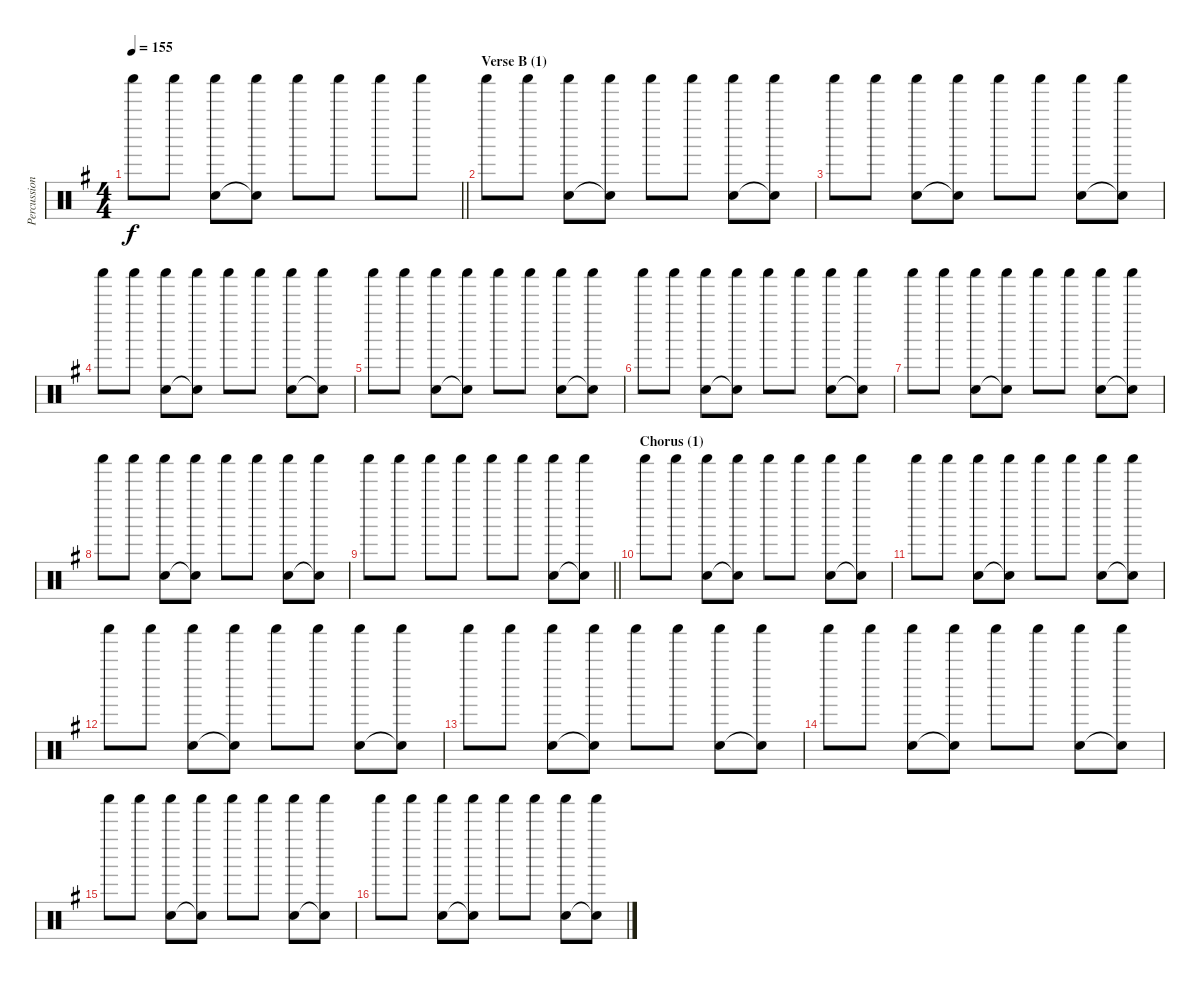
\track ("Percussion" "Percussion") {instrument percussion}
\staff {score}
\articulation defaults
\ts (4 4)
\tempo 155
\clef neutral
\barLineRight lightlight
\ks eminor "Shaker (hit)".8{dy f} "Shaker (hit)".8
("Hand Clap (hit)" "Shaker (hit)").8 ("Snare (hit)"{t} "Shaker (hit)").8 "Shaker (hit)".8 "Shaker (hit)".8 "Shaker (hit)".8 "Shaker (hit)".8 |
\section ("" "Verse B (1)")
"Shaker (hit)".8 "Shaker (hit)".8 ("Hand Clap (hit)" "Shaker (hit)").8 ("Snare (hit)"{t} "Shaker (hit)").8 "Shaker (hit)".8 "Shaker (hit)".8 ("Hand Clap (hit)" "Shaker (hit)").8 ("Snare (hit)"{t} "Shaker (hit)").8 |
"Shaker (hit)".8 "Shaker (hit)".8 ("Hand Clap (hit)" "Shaker (hit)").8 ("Snare (hit)"{t} "Shaker (hit)").8 "Shaker (hit)".8 "Shaker (hit)".8 ("Hand Clap (hit)" "Shaker (hit)").8 ("Snare (hit)"{t} "Shaker (hit)").8 |
"Shaker (hit)".8 "Shaker (hit)".8 ("Hand Clap (hit)" "Shaker (hit)").8 ("Snare (hit)"{t} "Shaker (hit)").8 "Shaker (hit)".8 "Shaker (hit)".8 ("Hand Clap (hit)" "Shaker (hit)").8 ("Snare (hit)"{t} "Shaker (hit)").8 |
"Shaker (hit)".8 "Shaker (hit)".8 ("Hand Clap (hit)" "Shaker (hit)").8 ("Snare (hit)"{t} "Shaker (hit)").8 "Shaker (hit)".8 "Shaker (hit)".8 ("Hand Clap (hit)" "Shaker (hit)").8 ("Snare (hit)"{t} "Shaker (hit)").8 |
"Shaker (hit)".8 "Shaker (hit)".8 ("Hand Clap (hit)" "Shaker (hit)").8 ("Snare (hit)"{t} "Shaker (hit)").8 "Shaker (hit)".8 "Shaker (hit)".8 ("Hand Clap (hit)" "Shaker (hit)").8 ("Snare (hit)"{t} "Shaker (hit)").8 |
"Shaker (hit)".8 "Shaker (hit)".8 ("Hand Clap (hit)" "Shaker (hit)").8 ("Snare (hit)"{t} "Shaker (hit)").8 "Shaker (hit)".8 "Shaker (hit)".8 ("Hand Clap (hit)" "Shaker (hit)").8 ("Snare (hit)"{t} "Shaker (hit)").8 |
"Shaker (hit)".8 "Shaker (hit)".8 ("Hand Clap (hit)" "Shaker (hit)").8 ("Snare (hit)"{t} "Shaker (hit)").8 "Shaker (hit)".8 "Shaker (hit)".8 ("Hand Clap (hit)" "Shaker (hit)").8 ("Snare (hit)"{t} "Shaker (hit)").8 |
\barLineRight lightlight "Shaker (hit)".8 "Shaker (hit)".8 "Shaker (hit)".8 "Shaker (hit)".8 "Shaker (hit)".8 "Shaker (hit)".8
("Hand Clap (hit)" "Shaker (hit)").8 ("Snare (hit)"{t} "Shaker (hit)").8 |
\section ("" "Chorus (1)")
"Shaker (hit)".8 "Shaker (hit)".8 ("Hand Clap (hit)" "Shaker (hit)").8 ("Snare (hit)"{t} "Shaker (hit)").8 "Shaker (hit)".8 "Shaker (hit)".8 ("Hand Clap (hit)" "Shaker (hit)").8 ("Snare (hit)"{t} "Shaker (hit)").8 |
"Shaker (hit)".8 "Shaker (hit)".8 ("Hand Clap (hit)" "Shaker (hit)").8 ("Snare (hit)"{t} "Shaker (hit)").8 "Shaker (hit)".8 "Shaker (hit)".8 ("Hand Clap (hit)" "Shaker (hit)").8 ("Snare (hit)"{t} "Shaker (hit)").8 |
"Shaker (hit)".8 "Shaker (hit)".8 ("Hand Clap (hit)" "Shaker (hit)").8 ("Snare (hit)"{t} "Shaker (hit)").8 "Shaker (hit)".8 "Shaker (hit)".8 ("Hand Clap (hit)" "Shaker (hit)").8 ("Snare (hit)"{t} "Shaker (hit)").8 |
"Shaker (hit)".8 "Shaker (hit)".8 ("Hand Clap (hit)" "Shaker (hit)").8 ("Snare (hit)"{t} "Shaker (hit)").8 "Shaker (hit)".8 "Shaker (hit)".8 ("Hand Clap (hit)" "Shaker (hit)").8 ("Snare (hit)"{t} "Shaker (hit)").8 |
"Shaker (hit)".8 "Shaker (hit)".8 ("Hand Clap (hit)" "Shaker (hit)").8 ("Snare (hit)"{t} "Shaker (hit)").8 "Shaker (hit)".8 "Shaker (hit)".8 ("Hand Clap (hit)" "Shaker (hit)").8 ("Snare (hit)"{t} "Shaker (hit)").8 |
"Shaker (hit)".8 "Shaker (hit)".8 ("Hand Clap (hit)" "Shaker (hit)").8 ("Snare (hit)"{t} "Shaker (hit)").8 "Shaker (hit)".8 "Shaker (hit)".8 ("Hand Clap (hit)" "Shaker (hit)").8 ("Snare (hit)"{t} "Shaker (hit)").8 |
"Shaker (hit)".8 "Shaker (hit)".8 ("Hand Clap (hit)" "Shaker (hit)").8 ("Snare (hit)"{t} "Shaker (hit)").8 "Shaker (hit)".8 "Shaker (hit)".8 ("Hand Clap (hit)" "Shaker (hit)").8 ("Snare (hit)"{t} "Shaker (hit)").8
